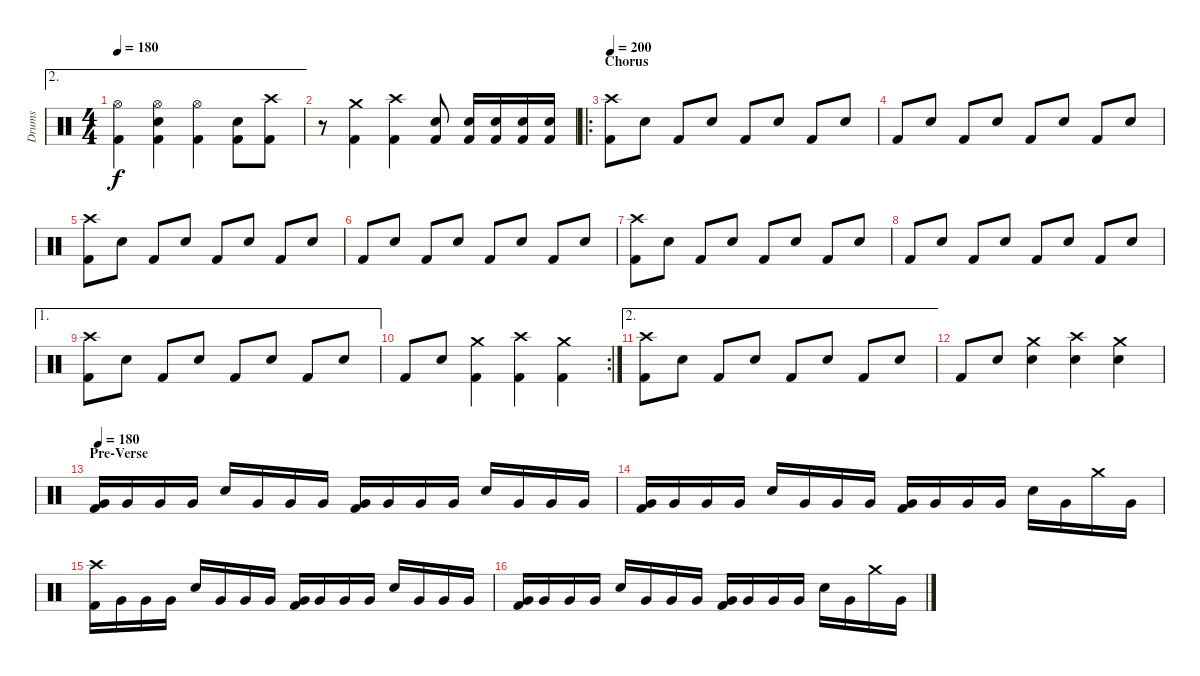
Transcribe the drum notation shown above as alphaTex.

\track ("Drums" "Drums") {instrument percussion}
\staff {score}
\articulation defaults
\ae 2
\ts (4 4)
\tempo 180
\clef neutral
\ks c
("Hi-Hat (open)" "Kick (hit) 2").4{dy f} ("Hi-Hat (open)" "Snare (hit) 2" "Kick (hit) 2").4 ("Hi-Hat (open)" "Kick (hit) 2").4 ("Snare (hit) 2" "Kick (hit) 2").8 ("Crash high (hit)" "Kick (hit) 2").8 |
r.8 ("Crash medium (hit)" "Kick (hit) 2").4 ("Crash high (hit)" "Kick (hit) 2").4 ("Snare (hit) 2" "Kick (hit) 2").8 ("Snare (hit) 2" "Kick (hit) 2").16 ("Snare (hit) 2" "Kick (hit) 2").16 ("Snare (hit) 2" "Kick (hit) 2").16 ("Snare (hit) 2" "Kick (hit) 2").16 |
\ro
\section ("" "Chorus")
\tempo 200
("Crash high (hit)" "Kick (hit) 2").8 "Snare (hit) 2".8 "Kick (hit) 2".8 "Snare (hit) 2".8 "Kick (hit) 2".8 "Snare (hit) 2".8 "Kick (hit) 2".8 "Snare (hit) 2".8 |
"Kick (hit) 2".8 "Snare (hit) 2".8 "Kick (hit) 2".8 "Snare (hit) 2".8 "Kick (hit) 2".8 "Snare (hit) 2".8 "Kick (hit) 2".8 "Snare (hit) 2".8 |
("Crash high (hit)" "Kick (hit) 2").8 "Snare (hit) 2".8 "Kick (hit) 2".8 "Snare (hit) 2".8 "Kick (hit) 2".8 "Snare (hit) 2".8 "Kick (hit) 2".8 "Snare (hit) 2".8 |
"Kick (hit) 2".8 "Snare (hit) 2".8 "Kick (hit) 2".8 "Snare (hit) 2".8 "Kick (hit) 2".8 "Snare (hit) 2".8 "Kick (hit) 2".8 "Snare (hit) 2".8 |
("Crash high (hit)" "Kick (hit) 2").8 "Snare (hit) 2".8 "Kick (hit) 2".8 "Snare (hit) 2".8 "Kick (hit) 2".8 "Snare (hit) 2".8 "Kick (hit) 2".8 "Snare (hit) 2".8 |
"Kick (hit) 2".8 "Snare (hit) 2".8 "Kick (hit) 2".8 "Snare (hit) 2".8 "Kick (hit) 2".8 "Snare (hit) 2".8 "Kick (hit) 2".8 "Snare (hit) 2".8 |
\ae 1
("Crash high (hit)" "Kick (hit) 2").8 "Snare (hit) 2".8 "Kick (hit) 2".8 "Snare (hit) 2".8 "Kick (hit) 2".8 "Snare (hit) 2".8 "Kick (hit) 2".8 "Snare (hit) 2".8 |
\rc 2 "Kick (hit) 2".8 "Snare (hit) 2".8
("Crash medium (hit)" "Kick (hit) 2").4 ("Crash high (hit)" "Kick (hit) 2").4 ("Crash medium (hit)" "Kick (hit) 2").4 |
\ae 2
("Crash high (hit)" "Kick (hit) 2").8 "Snare (hit) 2".8 "Kick (hit) 2".8 "Snare (hit) 2".8 "Kick (hit) 2".8 "Snare (hit) 2".8 "Kick (hit) 2".8 "Snare (hit) 2".8 |
"Kick (hit) 2".8 "Snare (hit) 2".8 ("Crash medium (hit)" "Snare (hit) 2").4 ("Crash high (hit)" "Snare (hit) 2").4 ("Crash medium (hit)" "Snare (hit) 2").4 |
\section ("" "Pre-Verse")
\tempo 180
("Kick (hit) 2" "Very Low Tom (hit)").16 "Very Low Tom (hit)".16 "Very Low Tom (hit)".16 "Very Low Tom (hit)".16 "Snare (hit) 2".16 "Very Low Tom (hit)".16 "Very Low Tom (hit)".16 "Very Low Tom (hit)".16 ("Kick (hit) 2" "Very Low Tom (hit)").16 "Very Low Tom (hit)".16 "Very Low Tom (hit)".16 "Very Low Tom (hit)".16 "Snare (hit) 2".16 "Very Low Tom (hit)".16 "Very Low Tom (hit)".16 "Very Low Tom (hit)".16 |
("Kick (hit) 2" "Very Low Tom (hit)").16 "Very Low Tom (hit)".16 "Very Low Tom (hit)".16 "Very Low Tom (hit)".16 "Snare (hit) 2".16 "Very Low Tom (hit)".16 "Very Low Tom (hit)".16 "Very Low Tom (hit)".16 ("Kick (hit) 2" "Very Low Tom (hit)").16 "Very Low Tom (hit)".16 "Very Low Tom (hit)".16 "Very Low Tom (hit)".16 "Snare (hit) 2".16 "Very Low Tom (hit)".16 "Crash medium (hit)".16 "Very Low Tom (hit)".16 |
("Crash high (hit)" "Kick (hit) 2").16 "Very Low Tom (hit)".16 "Very Low Tom (hit)".16 "Very Low Tom (hit)".16 "Snare (hit) 2".16 "Very Low Tom (hit)".16 "Very Low Tom (hit)".16 "Very Low Tom (hit)".16 ("Kick (hit) 2" "Very Low Tom (hit)").16 "Very Low Tom (hit)".16 "Very Low Tom (hit)".16 "Very Low Tom (hit)".16 "Snare (hit) 2".16 "Very Low Tom (hit)".16 "Very Low Tom (hit)".16 "Very Low Tom (hit)".16 |
("Kick (hit) 2" "Very Low Tom (hit)").16 "Very Low Tom (hit)".16 "Very Low Tom (hit)".16 "Very Low Tom (hit)".16 "Snare (hit) 2".16 "Very Low Tom (hit)".16 "Very Low Tom (hit)".16 "Very Low Tom (hit)".16 ("Kick (hit) 2" "Very Low Tom (hit)").16 "Very Low Tom (hit)".16 "Very Low Tom (hit)".16 "Very Low Tom (hit)".16 "Snare (hit) 2".16 "Very Low Tom (hit)".16 "Crash medium (hit)".16 "Very Low Tom (hit)".16
